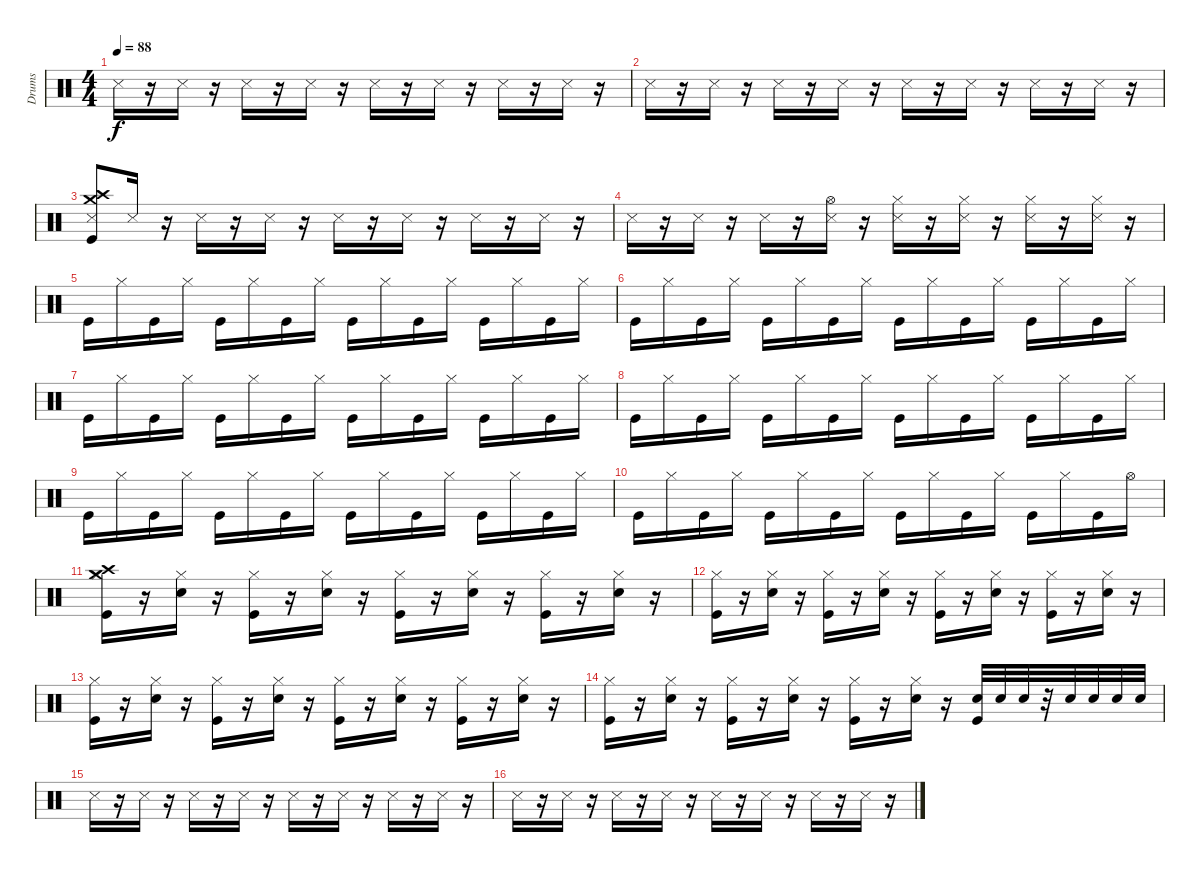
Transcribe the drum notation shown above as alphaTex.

\track ("Drums" "Drums") {instrument percussion}
\staff {score}
\articulation defaults
\ts (4 4)
\tempo 88
\clef neutral
\ks c "Snare (side stick) 3".16{dy f}
r.16 "Snare (side stick) 3".16 r.16 "Snare (side stick) 3".16 r.16 "Snare (side stick) 3".16 r.16 "Snare (side stick) 3".16 r.16 "Snare (side stick) 3".16 r.16 "Snare (side stick) 3".16 r.16 "Snare (side stick) 3".16 r.16 |
"Snare (side stick) 3".16 r.16 "Snare (side stick) 3".16 r.16 "Snare (side stick) 3".16 r.16 "Snare (side stick) 3".16 r.16 "Snare (side stick) 3".16 r.16 "Snare (side stick) 3".16 r.16 "Snare (side stick) 3".16 r.16 "Snare (side stick) 3".16 r.16 |
("Snare (side stick) 3" "Crash medium (hit)" "Crash high (hit)" "Kick (hit)").8 "Snare (side stick) 3".16 r.16 "Snare (side stick) 3".16 r.16 "Snare (side stick) 3".16 r.16 "Snare (side stick) 3".16 r.16 "Snare (side stick) 3".16 r.16 "Snare (side stick) 3".16 r.16 "Snare (side stick) 3".16 r.16 |
"Snare (side stick) 3".16 r.16 "Snare (side stick) 3".16 r.16 "Snare (side stick) 3".16 r.16 ("Hi-Hat (open)" "Snare (side stick) 3").16 r.16 ("Hi-Hat (closed)" "Snare (side stick) 3").16 r.16 ("Hi-Hat (closed)" "Snare (side stick) 3").16 r.16 ("Hi-Hat (closed)" "Snare (side stick) 3").16 r.16 ("Hi-Hat (closed)" "Snare (side stick) 3").16 r.16 |
"Kick (hit)".16 "Hi-Hat (closed)".16 "Kick (hit)".16 "Hi-Hat (closed)".16 "Kick (hit)".16 "Hi-Hat (closed)".16 "Kick (hit)".16 "Hi-Hat (closed)".16 "Kick (hit)".16 "Hi-Hat (closed)".16 "Kick (hit)".16 "Hi-Hat (closed)".16 "Kick (hit)".16 "Hi-Hat (closed)".16 "Kick (hit)".16 "Hi-Hat (closed)".16 |
"Kick (hit)".16 "Hi-Hat (closed)".16 "Kick (hit)".16 "Hi-Hat (closed)".16 "Kick (hit)".16 "Hi-Hat (closed)".16 "Kick (hit)".16 "Hi-Hat (closed)".16 "Kick (hit)".16 "Hi-Hat (closed)".16 "Kick (hit)".16 "Hi-Hat (closed)".16 "Kick (hit)".16 "Hi-Hat (closed)".16 "Kick (hit)".16 "Hi-Hat (closed)".16 |
"Kick (hit)".16 "Hi-Hat (closed)".16 "Kick (hit)".16 "Hi-Hat (closed)".16 "Kick (hit)".16 "Hi-Hat (closed)".16 "Kick (hit)".16 "Hi-Hat (closed)".16 "Kick (hit)".16 "Hi-Hat (closed)".16 "Kick (hit)".16 "Hi-Hat (closed)".16 "Kick (hit)".16 "Hi-Hat (closed)".16 "Kick (hit)".16 "Hi-Hat (closed)".16 |
"Kick (hit)".16 "Hi-Hat (closed)".16 "Kick (hit)".16 "Hi-Hat (closed)".16 "Kick (hit)".16 "Hi-Hat (closed)".16 "Kick (hit)".16 "Hi-Hat (closed)".16 "Kick (hit)".16 "Hi-Hat (closed)".16 "Kick (hit)".16 "Hi-Hat (closed)".16 "Kick (hit)".16 "Hi-Hat (closed)".16 "Kick (hit)".16 "Hi-Hat (closed)".16 |
"Kick (hit)".16 "Hi-Hat (closed)".16 "Kick (hit)".16 "Hi-Hat (closed)".16 "Kick (hit)".16 "Hi-Hat (closed)".16 "Kick (hit)".16 "Hi-Hat (closed)".16 "Kick (hit)".16 "Hi-Hat (closed)".16 "Kick (hit)".16 "Hi-Hat (closed)".16 "Kick (hit)".16 "Hi-Hat (closed)".16 "Kick (hit)".16 "Hi-Hat (closed)".16 |
"Kick (hit)".16 "Hi-Hat (closed)".16 "Kick (hit)".16 "Hi-Hat (closed)".16 "Kick (hit)".16 "Hi-Hat (closed)".16 "Kick (hit)".16 "Hi-Hat (closed)".16 "Kick (hit)".16 "Hi-Hat (closed)".16 "Kick (hit)".16 "Hi-Hat (closed)".16 "Kick (hit)".16 "Hi-Hat (closed)".16 "Kick (hit)".16 "Hi-Hat (open)".16 |
("Crash medium (hit)" "Kick (hit)" "Crash high (hit)" "Hi-Hat (closed)").16 r.16 ("Hi-Hat (closed)" "Snare (hit) 2").16 r.16 ("Hi-Hat (closed)" "Kick (hit)").16 r.16 ("Hi-Hat (closed)" "Snare (hit) 2").16 r.16 ("Hi-Hat (closed)" "Kick (hit)").16 r.16 ("Hi-Hat (closed)" "Snare (hit) 2").16 r.16 ("Kick (hit)" "Hi-Hat (closed)").16 r.16 ("Hi-Hat (closed)" "Snare (hit) 2").16 r.16 |
("Hi-Hat (closed)" "Kick (hit)").16 r.16 ("Hi-Hat (closed)" "Snare (hit) 2").16 r.16 ("Kick (hit)" "Hi-Hat (closed)").16 r.16 ("Hi-Hat (closed)" "Snare (hit) 2").16 r.16 ("Hi-Hat (closed)" "Kick (hit)").16 r.16 ("Snare (hit) 2" "Hi-Hat (closed)").16 r.16 ("Kick (hit)" "Hi-Hat (closed)").16 r.16 ("Snare (hit) 2" "Hi-Hat (closed)").16 r.16 |
("Hi-Hat (closed)" "Kick (hit)").16 r.16 ("Snare (hit) 2" "Hi-Hat (closed)").16 r.16 ("Hi-Hat (closed)" "Kick (hit)").16 r.16 ("Snare (hit) 2" "Hi-Hat (closed)").16 r.16 ("Hi-Hat (closed)" "Kick (hit)").16 r.16 ("Hi-Hat (closed)" "Snare (hit) 2").16 r.16 ("Hi-Hat (closed)" "Kick (hit)").16 r.16 ("Hi-Hat (closed)" "Snare (hit) 2").16 r.16 |
("Hi-Hat (closed)" "Kick (hit)").16 r.16 ("Snare (hit) 2" "Hi-Hat (closed)").16 r.16 ("Hi-Hat (closed)" "Kick (hit)").16 r.16 ("Hi-Hat (closed)" "Snare (hit) 2").16 r.16 ("Kick (hit)" "Hi-Hat (closed)").16 r.16 ("Hi-Hat (closed)" "Snare (hit) 2").16 r.16 ("Kick (hit)" "Snare (hit) 2").32 "Snare (hit) 2".32 "Snare (hit) 2".32 r.32 "Snare (hit) 2".32 "Snare (hit) 2".32 "Snare (hit) 2".32 "Snare (hit) 2".32 |
"Snare (side stick) 3".16 r.16 "Snare (side stick) 3".16 r.16 "Snare (side stick) 3".16 r.16 "Snare (side stick) 3".16 r.16 "Snare (side stick) 3".16 r.16 "Snare (side stick) 3".16 r.16 "Snare (side stick) 3".16 r.16 "Snare (side stick) 3".16 r.16 |
"Snare (side stick) 3".16 r.16 "Snare (side stick) 3".16 r.16 "Snare (side stick) 3".16 r.16 "Snare (side stick) 3".16 r.16 "Snare (side stick) 3".16 r.16 "Snare (side stick) 3".16 r.16 "Snare (side stick) 3".16 r.16 "Snare (side stick) 3".16 r.16
